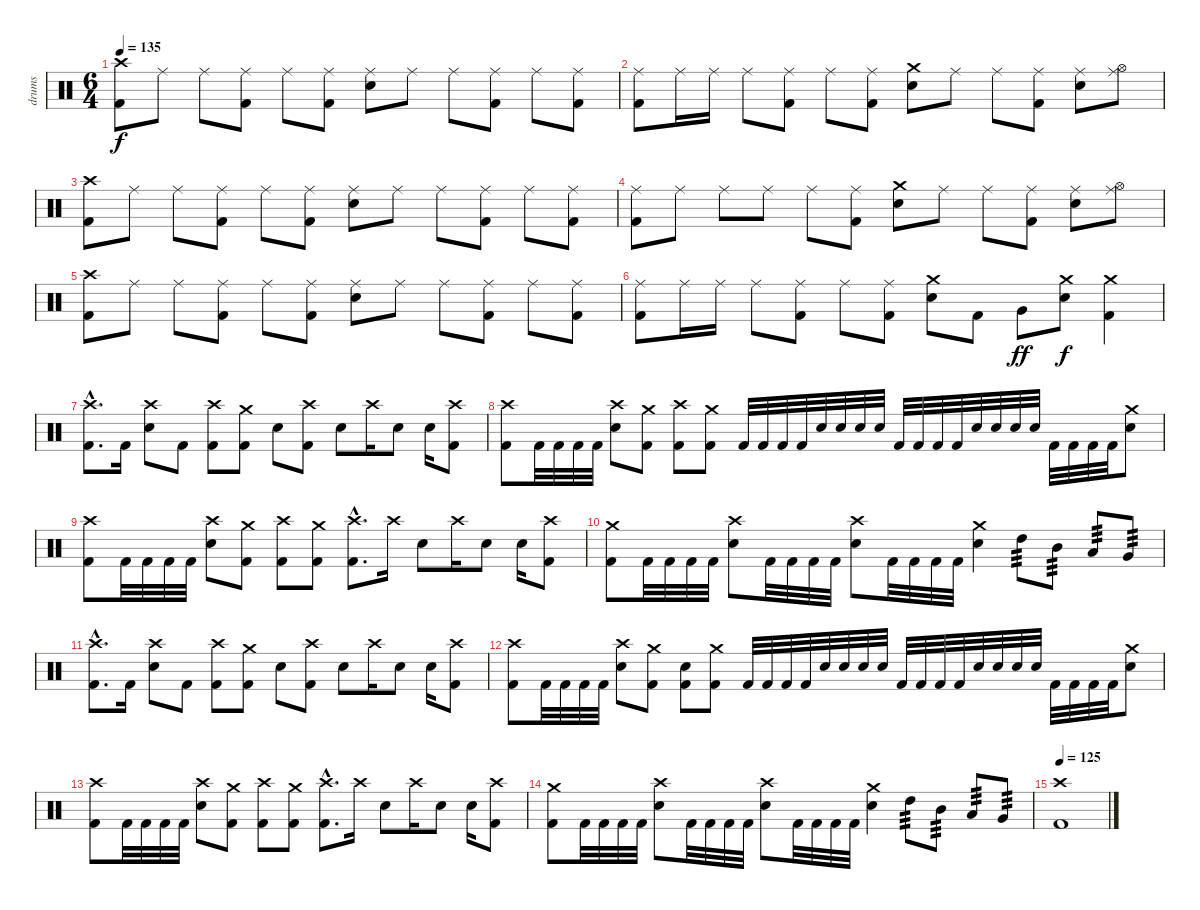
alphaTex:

\track ("drums" "drums") {instrument percussion}
\staff {score}
\articulation defaults
\ts (6 4)
\tempo 135
\clef neutral
\ks c
("Crash high (hit)" "Kick (hit) 2").8{dy f} "Ride (middle)".8 "Ride (middle)".8 ("Ride (middle)" "Kick (hit) 2").8 "Ride (middle)".8 ("Ride (middle)" "Kick (hit) 2").8 ("Ride (middle)" "Electric Snare (hit)").8 "Ride (middle)".8 "Ride (middle)".8 ("Ride (middle)" "Kick (hit) 2").8 "Ride (middle)".8 ("Ride (middle)" "Kick (hit) 2").8 |
("Ride (middle)" "Kick (hit) 2").8 "Ride (middle)".16 "Ride (middle)".16 "Ride (middle)".8 ("Ride (middle)" "Kick (hit) 2").8 "Ride (middle)".8 ("Ride (middle)" "Kick (hit) 2").8 ("Crash medium (hit)" "Electric Snare (hit)").8 "Ride (middle)".8 "Ride (middle)".8 ("Ride (middle)" "Kick (hit) 2").8 ("Ride (middle)" "Electric Snare (hit)").8 ("Ride (middle)" "Hi-Hat (open)").8 |
("Crash high (hit)" "Kick (hit) 2").8 "Ride (middle)".8 "Ride (middle)".8 ("Ride (middle)" "Kick (hit) 2").8 "Ride (middle)".8 ("Ride (middle)" "Kick (hit) 2").8 ("Ride (middle)" "Electric Snare (hit)").8 "Ride (middle)".8 "Ride (middle)".8 ("Ride (middle)" "Kick (hit) 2").8 "Ride (middle)".8 ("Ride (middle)" "Kick (hit) 2").8 |
("Ride (middle)" "Kick (hit) 2").8 "Ride (middle)".8 "Ride (middle)".8 "Ride (middle)".8 "Ride (middle)".8 ("Ride (middle)" "Kick (hit) 2").8 ("Crash medium (hit)" "Electric Snare (hit)").8 "Ride (middle)".8 "Ride (middle)".8 ("Ride (middle)" "Kick (hit) 2").8 ("Ride (middle)" "Electric Snare (hit)").8 ("Ride (middle)" "Hi-Hat (open)").8 |
("Crash high (hit)" "Kick (hit) 2").8 "Ride (middle)".8 "Ride (middle)".8 ("Ride (middle)" "Kick (hit) 2").8 "Ride (middle)".8 ("Ride (middle)" "Kick (hit) 2").8 ("Ride (middle)" "Electric Snare (hit)").8 "Ride (middle)".8 "Ride (middle)".8 ("Ride (middle)" "Kick (hit) 2").8 "Ride (middle)".8 ("Ride (middle)" "Kick (hit) 2").8 |
("Ride (middle)" "Kick (hit) 2").8 "Ride (middle)".16 "Ride (middle)".16 "Ride (middle)".8 ("Ride (middle)" "Kick (hit) 2").8 "Ride (middle)".8 ("Ride (middle)" "Kick (hit) 2").8 ("Crash medium (hit)" "Electric Snare (hit)").8 "Kick (hit) 2".8 "Very Low Tom (hit)".8{dy ff} ("Crash medium (hit)" "Electric Snare (hit)").8{dy f} ("Crash medium (hit)" "Kick (hit) 2").4 |
("Crash high (hit)"{hac} "Kick (hit) 2"{hac}).8{d} "Kick (hit) 2".16 ("Crash high (hit)" "Electric Snare (hit)").8 "Kick (hit) 2".8 ("Crash high (hit)" "Kick (hit) 2").8 ("Crash medium (hit)" "Kick (hit) 2").8 "Electric Snare (hit)".8 ("Crash high (hit)" "Kick (hit) 2").8 "Electric Snare (hit)".8 "Crash high (hit)".16 "Electric Snare (hit)".8 "Electric Snare (hit)".16 ("Crash high (hit)" "Kick (hit) 2").8 |
("Crash high (hit)" "Kick (hit) 2").8 "Kick (hit) 2".32 "Kick (hit) 2".32 "Kick (hit) 2".32 "Kick (hit) 2".32 ("Crash high (hit)" "Electric Snare (hit)").8 ("Crash medium (hit)" "Kick (hit) 2").8 ("Crash high (hit)" "Kick (hit) 2").8 ("Crash medium (hit)" "Kick (hit) 2").8 "Kick (hit) 2".32 "Kick (hit) 2".32 "Kick (hit) 2".32 "Kick (hit) 2".32 "Electric Snare (hit)".32 "Electric Snare (hit)".32 "Electric Snare (hit)".32 "Electric Snare (hit)".32 "Kick (hit) 2".32 "Kick (hit) 2".32 "Kick (hit) 2".32 "Kick (hit) 2".32 "Electric Snare (hit)".32 "Electric Snare (hit)".32 "Electric Snare (hit)".32 "Electric Snare (hit)".32 "Kick (hit) 2".32 "Kick (hit) 2".32 "Kick (hit) 2".32 "Kick (hit) 2".32 ("Crash medium (hit)" "Electric Snare (hit)").8 |
("Crash high (hit)" "Kick (hit) 2").8 "Kick (hit) 2".32 "Kick (hit) 2".32 "Kick (hit) 2".32 "Kick (hit) 2".32 ("Crash high (hit)" "Electric Snare (hit)").8 ("Crash medium (hit)" "Kick (hit) 2").8 ("Crash high (hit)" "Kick (hit) 2").8 ("Crash medium (hit)" "Kick (hit) 2").8 ("Crash high (hit)"{hac} "Kick (hit) 2"{hac}).8{d} "Crash high (hit)".16 "Electric Snare (hit)".8 "Crash high (hit)".16 "Electric Snare (hit)".8 "Electric Snare (hit)".16 ("Crash high (hit)" "Kick (hit) 2").8 |
("Crash medium (hit)" "Kick (hit) 2").8 "Kick (hit) 2".32 "Kick (hit) 2".32 "Kick (hit) 2".32 "Kick (hit) 2".32 ("Crash high (hit)" "Electric Snare (hit)").8 "Kick (hit) 2".32 "Kick (hit) 2".32 "Kick (hit) 2".32 "Kick (hit) 2".32 ("Crash high (hit)" "Electric Snare (hit)").8 "Kick (hit) 2".32 "Kick (hit) 2".32 "Kick (hit) 2".32 "Kick (hit) 2".32 ("Crash medium (hit)" "Electric Snare (hit)").4 "High Tom (hit)".8{tp 3} "Mid Tom (hit)".8{tp 3} "Low Tom (hit)".8{tp 3} "Very Low Tom (hit)".8{tp 3} |
("Crash high (hit)"{hac} "Kick (hit) 2"{hac}).8{d} "Kick (hit) 2".16 ("Crash high (hit)" "Electric Snare (hit)").8 "Kick (hit) 2".8 ("Crash high (hit)" "Kick (hit) 2").8 ("Crash medium (hit)" "Kick (hit) 2").8 "Electric Snare (hit)".8 ("Crash high (hit)" "Kick (hit) 2").8 "Electric Snare (hit)".8 "Crash high (hit)".16 "Electric Snare (hit)".8 "Electric Snare (hit)".16 ("Crash high (hit)" "Kick (hit) 2").8 |
("Crash high (hit)" "Kick (hit) 2").8 "Kick (hit) 2".32 "Kick (hit) 2".32 "Kick (hit) 2".32 "Kick (hit) 2".32 ("Crash high (hit)" "Electric Snare (hit)").8 ("Crash medium (hit)" "Kick (hit) 2").8 ("Electric Snare (hit)" "Kick (hit) 2").8 ("Crash medium (hit)" "Kick (hit) 2").8 "Kick (hit) 2".32 "Kick (hit) 2".32 "Kick (hit) 2".32 "Kick (hit) 2".32 "Electric Snare (hit)".32 "Electric Snare (hit)".32 "Electric Snare (hit)".32 "Electric Snare (hit)".32 "Kick (hit) 2".32 "Kick (hit) 2".32 "Kick (hit) 2".32 "Kick (hit) 2".32 "Electric Snare (hit)".32 "Electric Snare (hit)".32 "Electric Snare (hit)".32 "Electric Snare (hit)".32 "Kick (hit) 2".32 "Kick (hit) 2".32 "Kick (hit) 2".32 "Kick (hit) 2".32 ("Crash medium (hit)" "Electric Snare (hit)").8 |
("Crash high (hit)" "Kick (hit) 2").8 "Kick (hit) 2".32 "Kick (hit) 2".32 "Kick (hit) 2".32 "Kick (hit) 2".32 ("Crash high (hit)" "Electric Snare (hit)").8 ("Crash medium (hit)" "Kick (hit) 2").8 ("Crash high (hit)" "Kick (hit) 2").8 ("Crash medium (hit)" "Kick (hit) 2").8 ("Crash high (hit)"{hac} "Kick (hit) 2"{hac}).8{d} "Crash high (hit)".16 "Electric Snare (hit)".8 "Crash high (hit)".16 "Electric Snare (hit)".8 "Electric Snare (hit)".16 ("Crash high (hit)" "Kick (hit) 2").8 |
("Crash medium (hit)" "Kick (hit) 2").8 "Kick (hit) 2".32 "Kick (hit) 2".32 "Kick (hit) 2".32 "Kick (hit) 2".32 ("Crash high (hit)" "Electric Snare (hit)").8 "Kick (hit) 2".32 "Kick (hit) 2".32 "Kick (hit) 2".32 "Kick (hit) 2".32 ("Crash high (hit)" "Electric Snare (hit)").8 "Kick (hit) 2".32 "Kick (hit) 2".32 "Kick (hit) 2".32 "Kick (hit) 2".32 ("Crash medium (hit)" "Electric Snare (hit)").4 "High Tom (hit)".8{tp 3} "Mid Tom (hit)".8{tp 3} "Low Tom (hit)".8{tp 3} "Very Low Tom (hit)".8{tp 3} |
\tempo 125
("Crash high (hit)" "Kick (hit) 2").1
